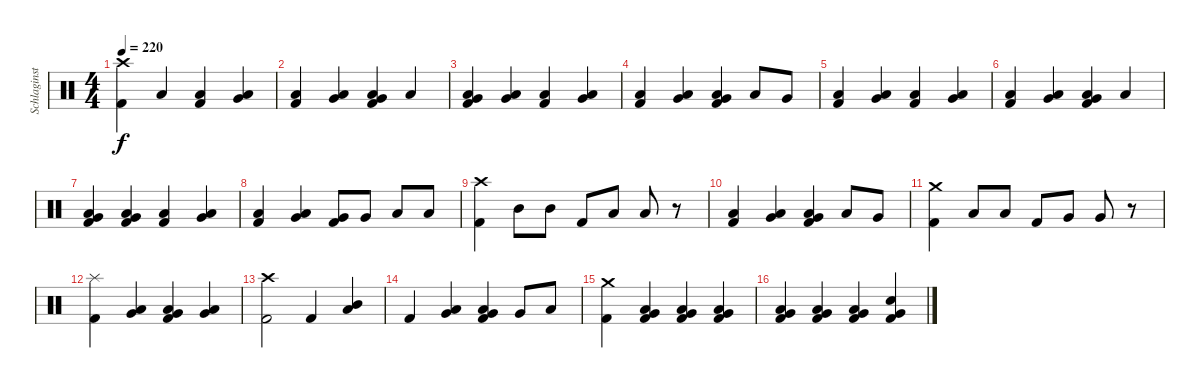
\track ("Schlaginstrumente - Auswahl" "Schlaginst") {instrument percussion}
\staff {score}
\articulation defaults
\ts (4 4)
\tempo 220
\clef neutral
\ks c
("Crash high (hit)" "Kick (hit) 2").4{dy f} "Low Floor Tom (hit)".4 ("Low Floor Tom (hit)" "Kick (hit) 2").4 ("Very Low Tom (hit)" "Low Floor Tom (hit)").4 |
("Low Floor Tom (hit)" "Kick (hit) 2").4 ("Very Low Tom (hit)" "Low Floor Tom (hit)").4 ("Very Low Tom (hit)" "Low Floor Tom (hit)" "Kick (hit) 2").4 "Low Floor Tom (hit)".4 |
("Very Low Tom (hit)" "Low Floor Tom (hit)" "Kick (hit) 2").4 ("Very Low Tom (hit)" "Low Floor Tom (hit)").4 ("Low Floor Tom (hit)" "Kick (hit) 2").4 ("Very Low Tom (hit)" "Low Floor Tom (hit)").4 |
("Low Floor Tom (hit)" "Kick (hit) 2").4 ("Very Low Tom (hit)" "Low Floor Tom (hit)").4 ("Very Low Tom (hit)" "Low Floor Tom (hit)" "Kick (hit) 2").4 "Low Floor Tom (hit)".8 "Very Low Tom (hit)".8 |
("Low Floor Tom (hit)" "Kick (hit) 2").4 ("Very Low Tom (hit)" "Low Floor Tom (hit)").4 ("Low Floor Tom (hit)" "Kick (hit) 2").4 ("Very Low Tom (hit)" "Low Floor Tom (hit)").4 |
("Low Floor Tom (hit)" "Kick (hit) 2").4 ("Very Low Tom (hit)" "Low Floor Tom (hit)").4 ("Very Low Tom (hit)" "Low Floor Tom (hit)" "Kick (hit) 2").4 "Low Floor Tom (hit)".4 |
("Very Low Tom (hit)" "Low Floor Tom (hit)" "Kick (hit) 2").4 ("Very Low Tom (hit)" "Low Floor Tom (hit)" "Kick (hit) 2").4 ("Low Floor Tom (hit)" "Kick (hit) 2").4 ("Very Low Tom (hit)" "Low Floor Tom (hit)").4 |
("Low Floor Tom (hit)" "Kick (hit) 2").4 ("Very Low Tom (hit)" "Low Floor Tom (hit)").4 ("Very Low Tom (hit)" "Kick (hit) 2").8 "Very Low Tom (hit)".8 "Low Floor Tom (hit)".8 "Low Floor Tom (hit)".8 |
("Crash high (hit)" "Kick (hit) 2").4 "Mid Tom (hit)".8 "Mid Tom (hit)".8 "Kick (hit) 2".8 "Low Tom (hit)".8 "Low Tom (hit)".8 r.8 |
("Low Floor Tom (hit)" "Kick (hit) 2").4 ("Very Low Tom (hit)" "Low Floor Tom (hit)").4 ("Very Low Tom (hit)" "Low Floor Tom (hit)" "Kick (hit) 2").4 "Low Floor Tom (hit)".8 "Very Low Tom (hit)".8 |
("Crash medium (hit)" "Kick (hit) 2").4 "Low Tom (hit)".8 "Low Tom (hit)".8 "Kick (hit) 2".8 "Very Low Tom (hit)".8 "Very Low Tom (hit)".8 r.8 |
("Splash (hit)" "Kick (hit) 2").4 ("Very Low Tom (hit)" "Low Floor Tom (hit)").4 ("Very Low Tom (hit)" "Low Floor Tom (hit)" "Kick (hit) 2").4 ("Very Low Tom (hit)" "Low Floor Tom (hit)").4 |
("Crash high (hit)" "Kick (hit) 2").2 "Kick (hit) 2".4 ("Mid Tom (hit)" "Low Tom (hit)").4 |
"Kick (hit) 2".4 ("Low Tom (hit)" "Very Low Tom (hit)").4 ("Very Low Tom (hit)" "Low Floor Tom (hit)" "Kick (hit) 2").4 "Very Low Tom (hit)".8 "Low Tom (hit)".8 |
("Crash medium (hit)" "Kick (hit) 2").4 ("Very Low Tom (hit)" "Low Floor Tom (hit)" "Kick (hit) 2").4 ("Very Low Tom (hit)" "Low Floor Tom (hit)" "Kick (hit) 2").4 ("Very Low Tom (hit)" "Low Floor Tom (hit)" "Kick (hit) 2").4 |
("Very Low Tom (hit)" "Low Floor Tom (hit)" "Kick (hit) 2").4 ("Very Low Tom (hit)" "Low Floor Tom (hit)" "Kick (hit) 2").4 ("Very Low Tom (hit)" "Low Floor Tom (hit)" "Kick (hit) 2").4 ("Very Low Tom (hit)" "Snare (hit) 2" "Kick (hit) 2").4
